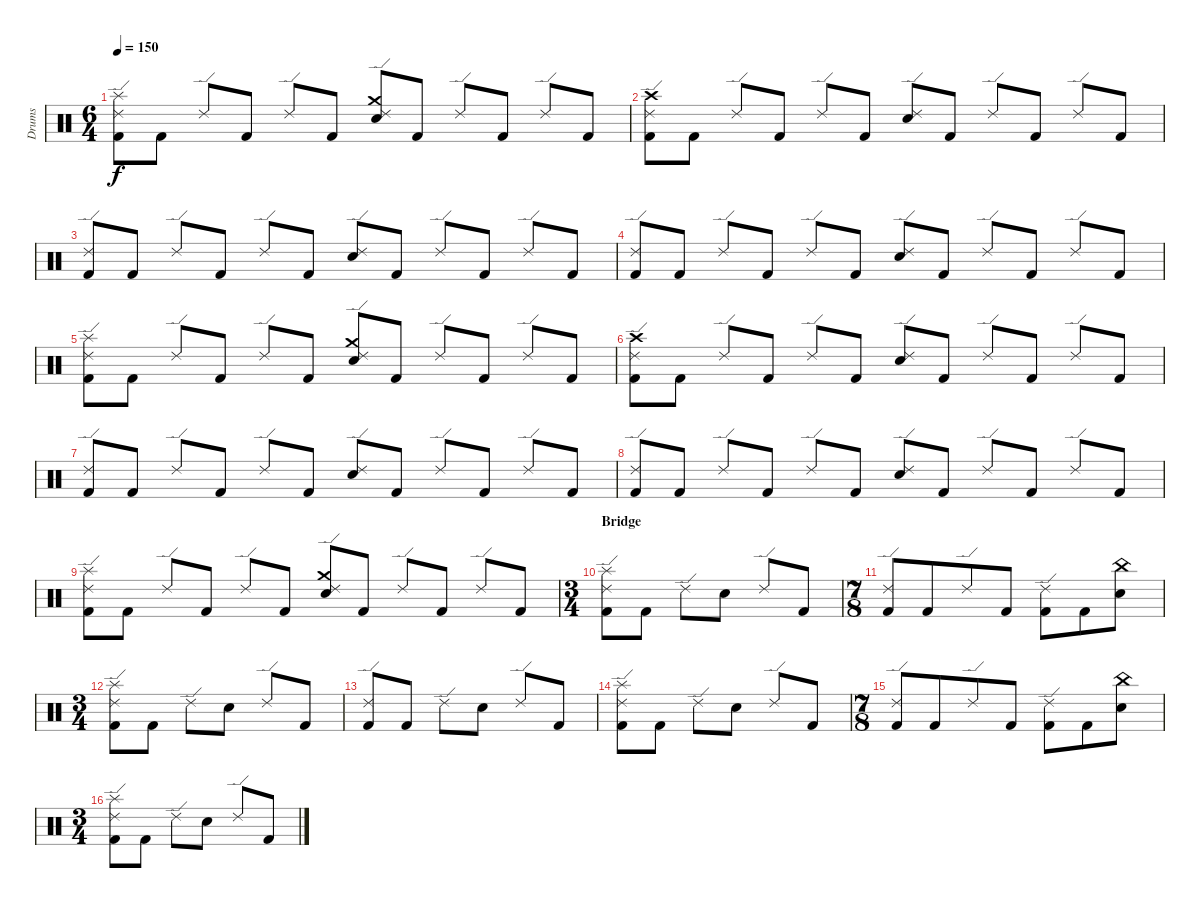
\track ("Drums" "Drums") {instrument percussion}
\staff {score}
\articulation defaults
\ts (6 4)
\tempo 150
\clef neutral
\ks c
("Splash (hit)" "Ride (edge) 2" "Kick (hit) 2").8{dy f} "Kick (hit) 2".8 "Ride (edge) 2".8 "Kick (hit) 2".8 "Ride (edge) 2".8 "Kick (hit) 2".8 ("Crash medium (hit)" "Ride (edge) 2" "Electric Snare (hit)").8 "Kick (hit) 2".8 "Ride (edge) 2".8 "Kick (hit) 2".8 "Ride (edge) 2".8 "Kick (hit) 2".8 |
("Crash high (hit)" "Ride (edge) 2" "Kick (hit) 2").8 "Kick (hit) 2".8 "Ride (edge) 2".8 "Kick (hit) 2".8 "Ride (edge) 2".8 "Kick (hit) 2".8 ("Ride (edge) 2" "Electric Snare (hit)").8 "Kick (hit) 2".8 "Ride (edge) 2".8 "Kick (hit) 2".8 "Ride (edge) 2".8 "Kick (hit) 2".8 |
("Ride (edge) 2" "Kick (hit) 2").8 "Kick (hit) 2".8 "Ride (edge) 2".8 "Kick (hit) 2".8 "Ride (edge) 2".8 "Kick (hit) 2".8 ("Ride (edge) 2" "Electric Snare (hit)").8 "Kick (hit) 2".8 "Ride (edge) 2".8 "Kick (hit) 2".8 "Ride (edge) 2".8 "Kick (hit) 2".8 |
("Ride (edge) 2" "Kick (hit) 2").8 "Kick (hit) 2".8 "Ride (edge) 2".8 "Kick (hit) 2".8 "Ride (edge) 2".8 "Kick (hit) 2".8 ("Ride (edge) 2" "Electric Snare (hit)").8 "Kick (hit) 2".8 "Ride (edge) 2".8 "Kick (hit) 2".8 "Ride (edge) 2".8 "Kick (hit) 2".8 |
("Splash (hit)" "Ride (edge) 2" "Kick (hit) 2").8 "Kick (hit) 2".8 "Ride (edge) 2".8 "Kick (hit) 2".8 "Ride (edge) 2".8 "Kick (hit) 2".8 ("Crash medium (hit)" "Ride (edge) 2" "Electric Snare (hit)").8 "Kick (hit) 2".8 "Ride (edge) 2".8 "Kick (hit) 2".8 "Ride (edge) 2".8 "Kick (hit) 2".8 |
("Crash high (hit)" "Ride (edge) 2" "Kick (hit) 2").8 "Kick (hit) 2".8 "Ride (edge) 2".8 "Kick (hit) 2".8 "Ride (edge) 2".8 "Kick (hit) 2".8 ("Ride (edge) 2" "Electric Snare (hit)").8 "Kick (hit) 2".8 "Ride (edge) 2".8 "Kick (hit) 2".8 "Ride (edge) 2".8 "Kick (hit) 2".8 |
("Ride (edge) 2" "Kick (hit) 2").8 "Kick (hit) 2".8 "Ride (edge) 2".8 "Kick (hit) 2".8 "Ride (edge) 2".8 "Kick (hit) 2".8 ("Ride (edge) 2" "Electric Snare (hit)").8 "Kick (hit) 2".8 "Ride (edge) 2".8 "Kick (hit) 2".8 "Ride (edge) 2".8 "Kick (hit) 2".8 |
("Ride (edge) 2" "Kick (hit) 2").8 "Kick (hit) 2".8 "Ride (edge) 2".8 "Kick (hit) 2".8 "Ride (edge) 2".8 "Kick (hit) 2".8 ("Ride (edge) 2" "Electric Snare (hit)").8 "Kick (hit) 2".8 "Ride (edge) 2".8 "Kick (hit) 2".8 "Ride (edge) 2".8 "Kick (hit) 2".8 |
("Splash (hit)" "Ride (edge) 2" "Kick (hit) 2").8 "Kick (hit) 2".8 "Ride (edge) 2".8 "Kick (hit) 2".8 "Ride (edge) 2".8 "Kick (hit) 2".8 ("Crash medium (hit)" "Ride (edge) 2" "Electric Snare (hit)").8 "Kick (hit) 2".8 "Ride (edge) 2".8 "Kick (hit) 2".8 "Ride (edge) 2".8 "Kick (hit) 2".8 |
\ts (3 4)
\section ("" "Bridge")
("Splash (hit)" "Ride (edge) 2" "Kick (hit) 2").8 "Kick (hit) 2".8 "Ride (edge) 2".8 "Electric Snare (hit)".8 "Ride (edge) 2".8 "Kick (hit) 2".8 |
\ts (7 8)
("Ride (edge) 2" "Kick (hit) 2").8 "Kick (hit) 2".8 "Ride (edge) 2".8 "Kick (hit) 2".8 ("Ride (edge) 2" "Kick (hit) 2").8 "Kick (hit) 2".8 ("China (hit)" "Electric Snare (hit)").8 |
\ts (3 4)
("Splash (hit)" "Ride (edge) 2" "Kick (hit) 2").8 "Kick (hit) 2".8 "Ride (edge) 2".8 "Electric Snare (hit)".8 "Ride (edge) 2".8 "Kick (hit) 2".8 |
("Ride (edge) 2" "Kick (hit) 2").8 "Kick (hit) 2".8 "Ride (edge) 2".8 "Electric Snare (hit)".8 "Ride (edge) 2".8 "Kick (hit) 2".8 |
("Splash (hit)" "Ride (edge) 2" "Kick (hit) 2").8 "Kick (hit) 2".8 "Ride (edge) 2".8 "Electric Snare (hit)".8 "Ride (edge) 2".8 "Kick (hit) 2".8 |
\ts (7 8)
("Ride (edge) 2" "Kick (hit) 2").8 "Kick (hit) 2".8 "Ride (edge) 2".8 "Kick (hit) 2".8 ("Ride (edge) 2" "Kick (hit) 2").8 "Kick (hit) 2".8 ("China (hit)" "Electric Snare (hit)").8 |
\ts (3 4)
("Splash (hit)" "Ride (edge) 2" "Kick (hit) 2").8 "Kick (hit) 2".8 "Ride (edge) 2".8 "Electric Snare (hit)".8 "Ride (edge) 2".8 "Kick (hit) 2".8
